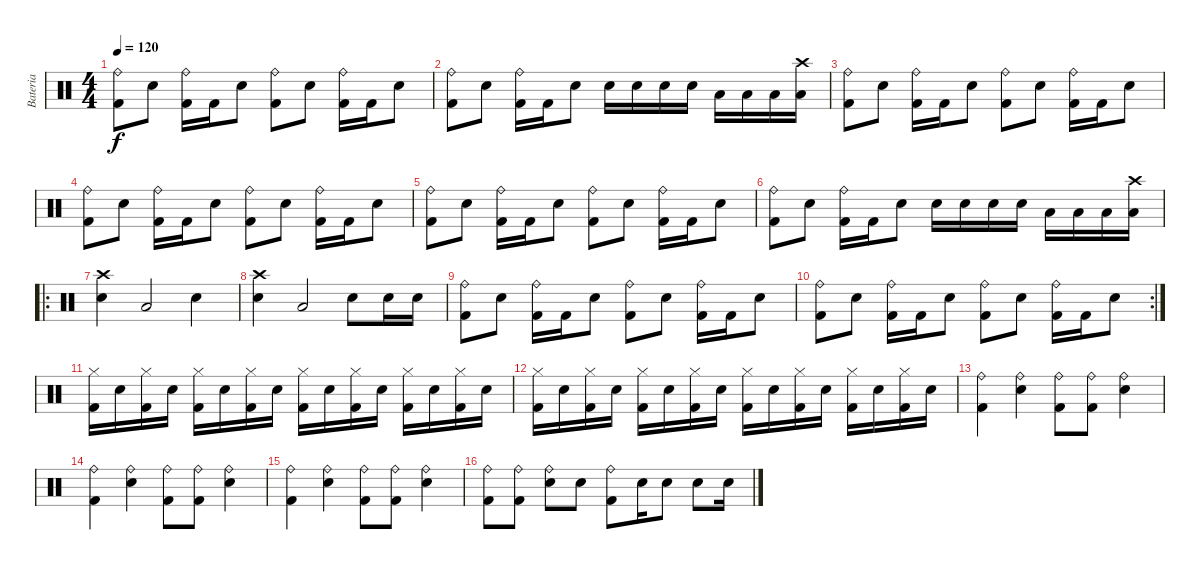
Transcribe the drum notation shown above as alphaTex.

\track ("Bateria" "Bateria") {instrument percussion}
\staff {score}
\articulation defaults
\ts (4 4)
\tempo 120
\clef neutral
\ks c
("Kick (hit) 2" "Ride (bell)").8{dy f} "Electric Snare (hit)".8 ("Kick (hit) 2" "Ride (bell)").16 "Kick (hit) 2".16 "Electric Snare (hit)".8 ("Kick (hit) 2" "Ride (bell)").8 "Electric Snare (hit)".8 ("Kick (hit) 2" "Ride (bell)").16 "Kick (hit) 2".16 "Electric Snare (hit)".8 |
("Kick (hit) 2" "Ride (bell)").8 "Electric Snare (hit)".8 ("Kick (hit) 2" "Ride (bell)").16 "Kick (hit) 2".16 "Electric Snare (hit)".8 "Electric Snare (hit)".16 "Electric Snare (hit)".16 "Electric Snare (hit)".16 "Electric Snare (hit)".16 "Low Floor Tom (hit)".16 "Low Floor Tom (hit)".16 "Low Floor Tom (hit)".16 ("Low Floor Tom (hit)" "Crash high (hit)").16 |
("Kick (hit) 2" "Ride (bell)").8 "Electric Snare (hit)".8 ("Kick (hit) 2" "Ride (bell)").16 "Kick (hit) 2".16 "Electric Snare (hit)".8 ("Kick (hit) 2" "Ride (bell)").8 "Electric Snare (hit)".8 ("Kick (hit) 2" "Ride (bell)").16 "Kick (hit) 2".16 "Electric Snare (hit)".8 |
("Kick (hit) 2" "Ride (bell)").8 "Electric Snare (hit)".8 ("Kick (hit) 2" "Ride (bell)").16 "Kick (hit) 2".16 "Electric Snare (hit)".8 ("Kick (hit) 2" "Ride (bell)").8 "Electric Snare (hit)".8 ("Kick (hit) 2" "Ride (bell)").16 "Kick (hit) 2".16 "Electric Snare (hit)".8 |
("Kick (hit) 2" "Ride (bell)").8 "Electric Snare (hit)".8 ("Kick (hit) 2" "Ride (bell)").16 "Kick (hit) 2".16 "Electric Snare (hit)".8 ("Kick (hit) 2" "Ride (bell)").8 "Electric Snare (hit)".8 ("Kick (hit) 2" "Ride (bell)").16 "Kick (hit) 2".16 "Electric Snare (hit)".8 |
("Kick (hit) 2" "Ride (bell)").8 "Electric Snare (hit)".8 ("Kick (hit) 2" "Ride (bell)").16 "Kick (hit) 2".16 "Electric Snare (hit)".8 "Electric Snare (hit)".16 "Electric Snare (hit)".16 "Electric Snare (hit)".16 "Electric Snare (hit)".16 "Low Floor Tom (hit)".16 "Low Floor Tom (hit)".16 "Low Floor Tom (hit)".16 ("Low Floor Tom (hit)" "Crash high (hit)").16 |
\ro
("Electric Snare (hit)" "Crash high (hit)").4 "Low Floor Tom (hit)".2 "Electric Snare (hit)".4 |
("Electric Snare (hit)" "Crash high (hit)").4 "Low Floor Tom (hit)".2 "Electric Snare (hit)".8 "Electric Snare (hit)".16 "Electric Snare (hit)".16 |
("Kick (hit) 2" "Ride (bell)").8 "Electric Snare (hit)".8 ("Kick (hit) 2" "Ride (bell)").16 "Kick (hit) 2".16 "Electric Snare (hit)".8 ("Kick (hit) 2" "Ride (bell)").8 "Electric Snare (hit)".8 ("Kick (hit) 2" "Ride (bell)").16 "Kick (hit) 2".16 "Electric Snare (hit)".8 |
\rc 2
("Kick (hit) 2" "Ride (bell)").8 "Electric Snare (hit)".8 ("Kick (hit) 2" "Ride (bell)").16 "Kick (hit) 2".16 "Electric Snare (hit)".8 ("Kick (hit) 2" "Ride (bell)").8 "Electric Snare (hit)".8 ("Kick (hit) 2" "Ride (bell)").16 "Kick (hit) 2".16 "Electric Snare (hit)".8 |
("Kick (hit) 2" "Hi-Hat (closed)").16 "Electric Snare (hit)".16 ("Kick (hit) 2" "Hi-Hat (closed)").16 "Electric Snare (hit)".16 ("Kick (hit) 2" "Hi-Hat (closed)").16 "Electric Snare (hit)".16 ("Kick (hit) 2" "Hi-Hat (closed)").16 "Electric Snare (hit)".16 ("Kick (hit) 2" "Hi-Hat (closed)").16 "Electric Snare (hit)".16 ("Kick (hit) 2" "Hi-Hat (closed)").16 "Electric Snare (hit)".16 ("Kick (hit) 2" "Hi-Hat (closed)").16 "Electric Snare (hit)".16 ("Kick (hit) 2" "Hi-Hat (closed)").16 "Electric Snare (hit)".16 |
("Kick (hit) 2" "Hi-Hat (closed)").16 "Electric Snare (hit)".16 ("Kick (hit) 2" "Hi-Hat (closed)").16 "Electric Snare (hit)".16 ("Kick (hit) 2" "Hi-Hat (closed)").16 "Electric Snare (hit)".16 ("Kick (hit) 2" "Hi-Hat (closed)").16 "Electric Snare (hit)".16 ("Kick (hit) 2" "Hi-Hat (closed)").16 "Electric Snare (hit)".16 ("Kick (hit) 2" "Hi-Hat (closed)").16 "Electric Snare (hit)".16 ("Kick (hit) 2" "Hi-Hat (closed)").16 "Electric Snare (hit)".16 ("Kick (hit) 2" "Hi-Hat (closed)").16 "Electric Snare (hit)".16 |
("Kick (hit) 2" "Ride (bell)").4 ("Electric Snare (hit)" "Ride (bell)").4 ("Kick (hit) 2" "Ride (bell)").8 ("Kick (hit) 2" "Ride (bell)").8 ("Electric Snare (hit)" "Ride (bell)").4 |
("Kick (hit) 2" "Ride (bell)").4 ("Electric Snare (hit)" "Ride (bell)").4 ("Kick (hit) 2" "Ride (bell)").8 ("Kick (hit) 2" "Ride (bell)").8 ("Electric Snare (hit)" "Ride (bell)").4 |
("Kick (hit) 2" "Ride (bell)").4 ("Electric Snare (hit)" "Ride (bell)").4 ("Kick (hit) 2" "Ride (bell)").8 ("Kick (hit) 2" "Ride (bell)").8 ("Electric Snare (hit)" "Ride (bell)").4 |
("Kick (hit) 2" "Ride (bell)").8 ("Kick (hit) 2" "Ride (bell)").8 ("Electric Snare (hit)" "Ride (bell)").8 "Electric Snare (hit)".8 ("Kick (hit) 2" "Ride (bell)").8 "Electric Snare (hit)".16 "Electric Snare (hit)".8 "Electric Snare (hit)".8 "Electric Snare (hit)".16
